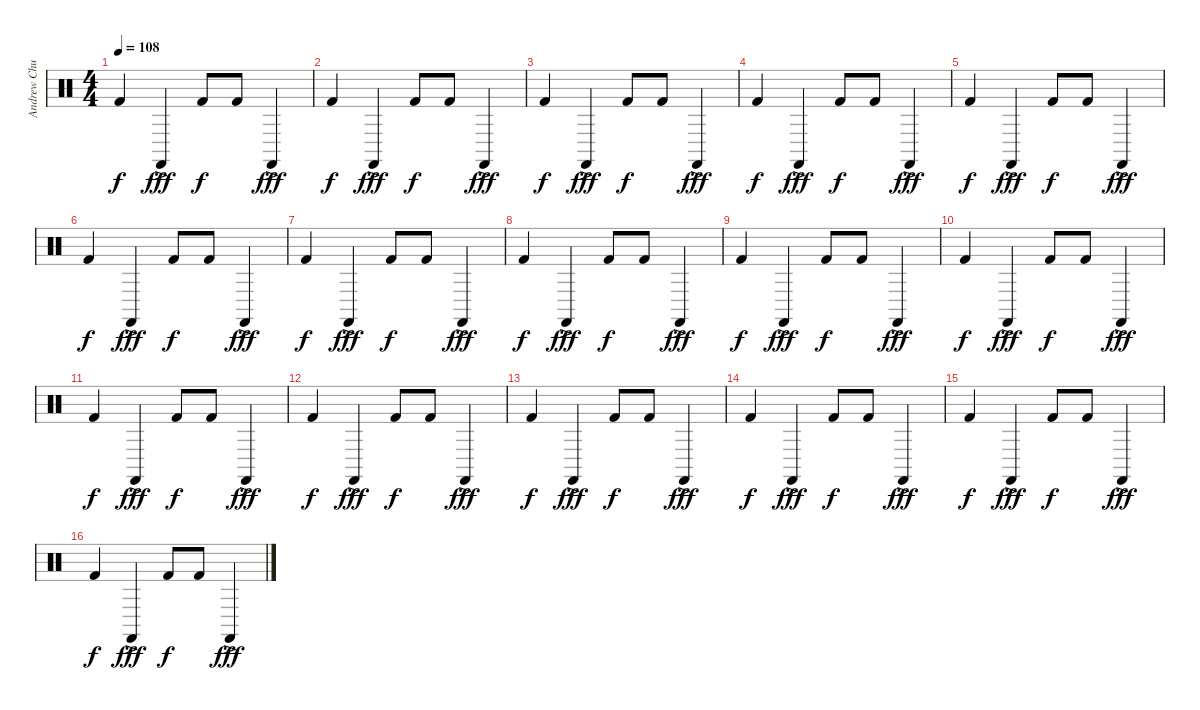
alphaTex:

\track ("Andrew Chudy - Drum" "Andrew Chu") {instrument percussion}
\staff {score}
\articulation defaults
\ts (4 4)
\tempo 108
\clef neutral
\ks c "Kick (hit) 2".4{dy f} "Castanets (hit)"{ac}.4{dy fff} "Kick (hit) 2".8{dy f} "Kick (hit) 2".8 "Castanets (hit)"{ac}.4{dy fff}
|
"Kick (hit) 2".4{dy f} "Castanets (hit)"{ac}.4{dy fff} "Kick (hit) 2".8{dy f} "Kick (hit) 2".8 "Castanets (hit)"{ac}.4{dy fff} |
"Kick (hit) 2".4{dy f} "Castanets (hit)"{ac}.4{dy fff} "Kick (hit) 2".8{dy f} "Kick (hit) 2".8 "Castanets (hit)"{ac}.4{dy fff} |
"Kick (hit) 2".4{dy f} "Castanets (hit)"{ac}.4{dy fff} "Kick (hit) 2".8{dy f} "Kick (hit) 2".8 "Castanets (hit)"{ac}.4{dy fff} |
"Kick (hit) 2".4{dy f} "Castanets (hit)"{ac}.4{dy fff} "Kick (hit) 2".8{dy f} "Kick (hit) 2".8 "Castanets (hit)"{ac}.4{dy fff} |
"Kick (hit) 2".4{dy f} "Castanets (hit)"{ac}.4{dy fff} "Kick (hit) 2".8{dy f} "Kick (hit) 2".8 "Castanets (hit)"{ac}.4{dy fff} |
"Kick (hit) 2".4{dy f} "Castanets (hit)"{ac}.4{dy fff} "Kick (hit) 2".8{dy f} "Kick (hit) 2".8 "Castanets (hit)"{ac}.4{dy fff} |
"Kick (hit) 2".4{dy f} "Castanets (hit)"{ac}.4{dy fff} "Kick (hit) 2".8{dy f} "Kick (hit) 2".8 "Castanets (hit)"{ac}.4{dy fff} |
"Kick (hit) 2".4{dy f} "Castanets (hit)"{ac}.4{dy fff} "Kick (hit) 2".8{dy f} "Kick (hit) 2".8 "Castanets (hit)"{ac}.4{dy fff} |
"Kick (hit) 2".4{dy f} "Castanets (hit)"{ac}.4{dy fff} "Kick (hit) 2".8{dy f} "Kick (hit) 2".8 "Castanets (hit)"{ac}.4{dy fff} |
"Kick (hit) 2".4{dy f} "Castanets (hit)"{ac}.4{dy fff} "Kick (hit) 2".8{dy f} "Kick (hit) 2".8 "Castanets (hit)"{ac}.4{dy fff} |
"Kick (hit) 2".4{dy f} "Castanets (hit)"{ac}.4{dy fff} "Kick (hit) 2".8{dy f} "Kick (hit) 2".8 "Castanets (hit)"{ac}.4{dy fff} |
"Kick (hit) 2".4{dy f} "Castanets (hit)"{ac}.4{dy fff} "Kick (hit) 2".8{dy f} "Kick (hit) 2".8 "Castanets (hit)"{ac}.4{dy fff} |
"Kick (hit) 2".4{dy f} "Castanets (hit)"{ac}.4{dy fff} "Kick (hit) 2".8{dy f} "Kick (hit) 2".8 "Castanets (hit)"{ac}.4{dy fff} |
"Kick (hit) 2".4{dy f} "Castanets (hit)"{ac}.4{dy fff} "Kick (hit) 2".8{dy f} "Kick (hit) 2".8 "Castanets (hit)"{ac}.4{dy fff} |
"Kick (hit) 2".4{dy f} "Castanets (hit)"{ac}.4{dy fff} "Kick (hit) 2".8{dy f} "Kick (hit) 2".8 "Castanets (hit)"{ac}.4{dy fff}
